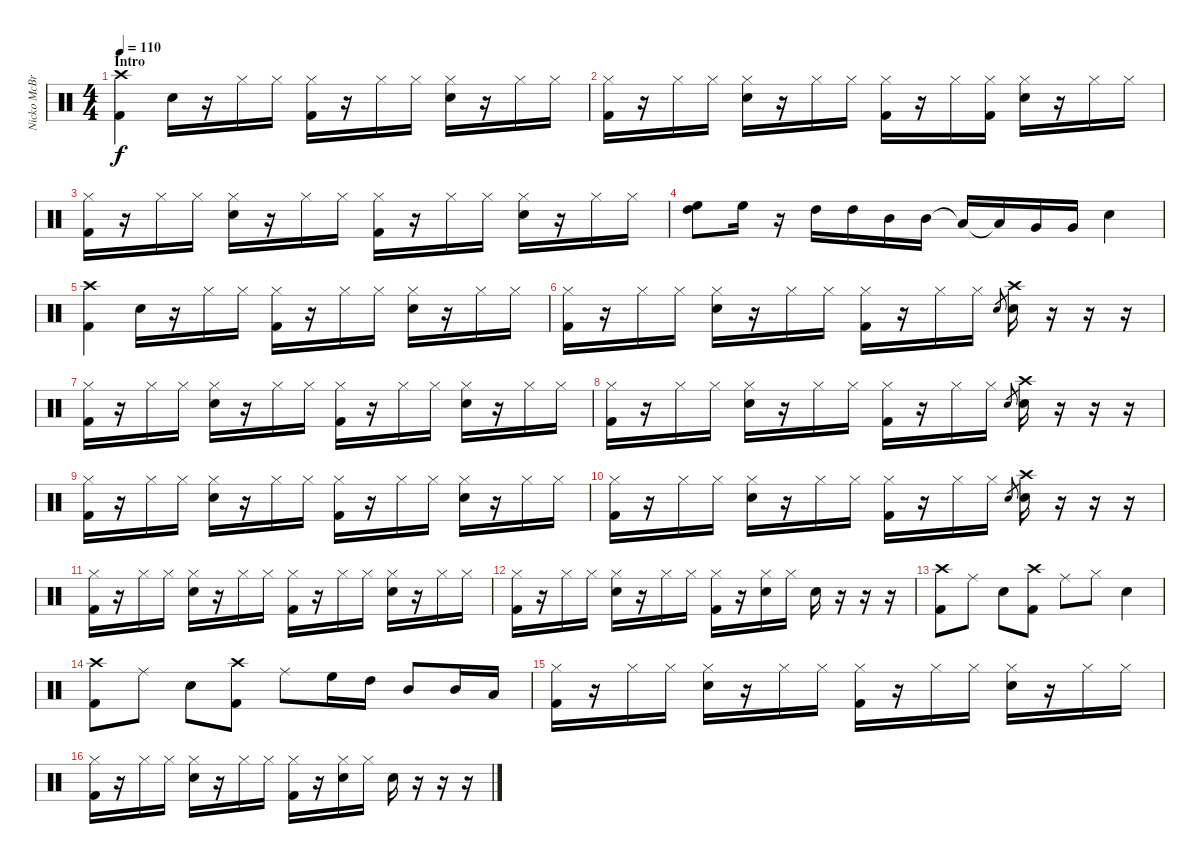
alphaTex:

\track ("Nicko McBrain" "Nicko McBr") {instrument percussion}
\staff {score}
\articulation defaults
\ts (4 4)
\section ("" "Intro")
\tempo 110
\clef neutral
\ks c
("Crash high (hit)" "Kick (hit) 2").4{dy f} "Snare (hit) 2".16 r.16 "Hi-Hat (closed)".16 "Hi-Hat (closed)".16 ("Hi-Hat (closed)" "Kick (hit) 2").16 r.16 "Hi-Hat (closed)".16 "Hi-Hat (closed)".16 ("Hi-Hat (closed)" "Snare (hit) 2").16 r.16 "Hi-Hat (closed)".16 "Hi-Hat (closed)".16 |
("Hi-Hat (closed)" "Kick (hit) 2").16 r.16 "Hi-Hat (closed)".16 "Hi-Hat (closed)".16 ("Hi-Hat (closed)" "Snare (hit) 2").16 r.16 "Hi-Hat (closed)".16 "Hi-Hat (closed)".16 ("Hi-Hat (closed)" "Kick (hit) 2").16 r.16 "Hi-Hat (closed)".16 ("Hi-Hat (closed)" "Kick (hit) 2").16 ("Hi-Hat (closed)" "Snare (hit) 2").16 r.16 "Hi-Hat (closed)".16 "Hi-Hat (closed)".16 |
("Hi-Hat (closed)" "Kick (hit) 2").16 r.16 "Hi-Hat (closed)".16 "Hi-Hat (closed)".16 ("Hi-Hat (closed)" "Snare (hit) 2").16 r.16 "Hi-Hat (closed)".16 "Hi-Hat (closed)".16 ("Hi-Hat (closed)" "Kick (hit) 2").16 r.16 "Hi-Hat (closed)".16 "Hi-Hat (closed)".16 ("Hi-Hat (closed)" "Snare (hit) 2").16 r.16 "Hi-Hat (closed)".16 "Hi-Hat (closed)".16 |
("High Floor Tom (hit)" "High Tom (hit)").8 "High Floor Tom (hit)".16 r.16 "High Tom (hit)".16 "High Tom (hit)".16 "Mid Tom (hit)".16 "Mid Tom (hit)".16 "Low Tom (hit)"{t}.16 "Low Tom (hit)"{t}.16 "Very Low Tom (hit)".16 "Very Low Tom (hit)".16 "Snare (hit) 2".4 |
("Crash high (hit)" "Kick (hit) 2").4 "Snare (hit) 2".16 r.16 "Hi-Hat (closed)".16 "Hi-Hat (closed)".16 ("Hi-Hat (closed)" "Kick (hit) 2").16 r.16 "Hi-Hat (closed)".16 "Hi-Hat (closed)".16 ("Hi-Hat (closed)" "Snare (hit) 2").16 r.16 "Hi-Hat (closed)".16 "Hi-Hat (closed)".16 |
("Hi-Hat (closed)" "Kick (hit) 2").16 r.16 "Hi-Hat (closed)".16 "Hi-Hat (closed)".16 ("Hi-Hat (closed)" "Snare (hit) 2").16 r.16 "Hi-Hat (closed)".16 "Hi-Hat (closed)".16 ("Hi-Hat (closed)" "Kick (hit) 2").16 r.16 "Hi-Hat (closed)".16 "Hi-Hat (closed)".16 "Snare (hit) 2".8{gr} ("Crash high (hit)" "Snare (hit) 2").16 r.16 r.16 r.16 |
("Hi-Hat (closed)" "Kick (hit) 2").16 r.16 "Hi-Hat (closed)".16 "Hi-Hat (closed)".16 ("Hi-Hat (closed)" "Snare (hit) 2").16 r.16 "Hi-Hat (closed)".16 "Hi-Hat (closed)".16 ("Hi-Hat (closed)" "Kick (hit) 2").16 r.16 "Hi-Hat (closed)".16 "Hi-Hat (closed)".16 ("Hi-Hat (closed)" "Snare (hit) 2").16 r.16 "Hi-Hat (closed)".16 "Hi-Hat (closed)".16 |
("Hi-Hat (closed)" "Kick (hit) 2").16 r.16 "Hi-Hat (closed)".16 "Hi-Hat (closed)".16 ("Hi-Hat (closed)" "Snare (hit) 2").16 r.16 "Hi-Hat (closed)".16 "Hi-Hat (closed)".16 ("Hi-Hat (closed)" "Kick (hit) 2").16 r.16 "Hi-Hat (closed)".16 "Hi-Hat (closed)".16 "Snare (hit) 2".8{gr} ("Crash high (hit)" "Snare (hit) 2").16 r.16 r.16 r.16 |
("Hi-Hat (closed)" "Kick (hit) 2").16 r.16 "Hi-Hat (closed)".16 "Hi-Hat (closed)".16 ("Hi-Hat (closed)" "Snare (hit) 2").16 r.16 "Hi-Hat (closed)".16 "Hi-Hat (closed)".16 ("Hi-Hat (closed)" "Kick (hit) 2").16 r.16 "Hi-Hat (closed)".16 "Hi-Hat (closed)".16 ("Hi-Hat (closed)" "Snare (hit) 2").16 r.16 "Hi-Hat (closed)".16 "Hi-Hat (closed)".16 |
("Hi-Hat (closed)" "Kick (hit) 2").16 r.16 "Hi-Hat (closed)".16 "Hi-Hat (closed)".16 ("Hi-Hat (closed)" "Snare (hit) 2").16 r.16 "Hi-Hat (closed)".16 "Hi-Hat (closed)".16 ("Hi-Hat (closed)" "Kick (hit) 2").16 r.16 "Hi-Hat (closed)".16 "Hi-Hat (closed)".16 "Snare (hit) 2".8{gr} ("Crash high (hit)" "Snare (hit) 2").16 r.16 r.16 r.16 |
("Hi-Hat (closed)" "Kick (hit) 2").16 r.16 "Hi-Hat (closed)".16 "Hi-Hat (closed)".16 ("Hi-Hat (closed)" "Snare (hit) 2").16 r.16 "Hi-Hat (closed)".16 "Hi-Hat (closed)".16 ("Hi-Hat (closed)" "Kick (hit) 2").16 r.16 "Hi-Hat (closed)".16 "Hi-Hat (closed)".16 ("Hi-Hat (closed)" "Snare (hit) 2").16 r.16 "Hi-Hat (closed)".16 "Hi-Hat (closed)".16 |
("Hi-Hat (closed)" "Kick (hit) 2").16 r.16 "Hi-Hat (closed)".16 "Hi-Hat (closed)".16 ("Hi-Hat (closed)" "Snare (hit) 2").16 r.16 "Hi-Hat (closed)".16 "Hi-Hat (closed)".16 ("Hi-Hat (closed)" "Kick (hit) 2").16 r.16 ("Hi-Hat (closed)" "Snare (hit) 2").16 "Hi-Hat (closed)".16 "Snare (hit) 2".16 r.16 r.16 r.16 |
("Crash high (hit)" "Kick (hit) 2").8 "Ride (middle)".8 "Snare (hit) 2".8 ("Crash high (hit)" "Kick (hit) 2").8 "Ride (middle)".8 "Hi-Hat (closed)".8 "Snare (hit) 2".4 |
("Crash high (hit)" "Kick (hit) 2").8 "Ride (middle)".8 "Snare (hit) 2".8 ("Crash high (hit)" "Kick (hit) 2").8 "Ride (middle)".8 "High Floor Tom (hit)".16 "High Tom (hit)".16 "Mid Tom (hit)".8 "Mid Tom (hit)".16 "Low Tom (hit)".16 |
("Hi-Hat (closed)" "Kick (hit) 2").16 r.16 "Hi-Hat (closed)".16 "Hi-Hat (closed)".16 ("Hi-Hat (closed)" "Snare (hit) 2").16 r.16 "Hi-Hat (closed)".16 "Hi-Hat (closed)".16 ("Hi-Hat (closed)" "Kick (hit) 2").16 r.16 "Hi-Hat (closed)".16 "Hi-Hat (closed)".16 ("Hi-Hat (closed)" "Snare (hit) 2").16 r.16 "Hi-Hat (closed)".16 "Hi-Hat (closed)".16 |
("Hi-Hat (closed)" "Kick (hit) 2").16 r.16 "Hi-Hat (closed)".16 "Hi-Hat (closed)".16 ("Hi-Hat (closed)" "Snare (hit) 2").16 r.16 "Hi-Hat (closed)".16 "Hi-Hat (closed)".16 ("Hi-Hat (closed)" "Kick (hit) 2").16 r.16 ("Hi-Hat (closed)" "Snare (hit) 2").16 "Hi-Hat (closed)".16 "Snare (hit) 2".16 r.16 r.16 r.16
